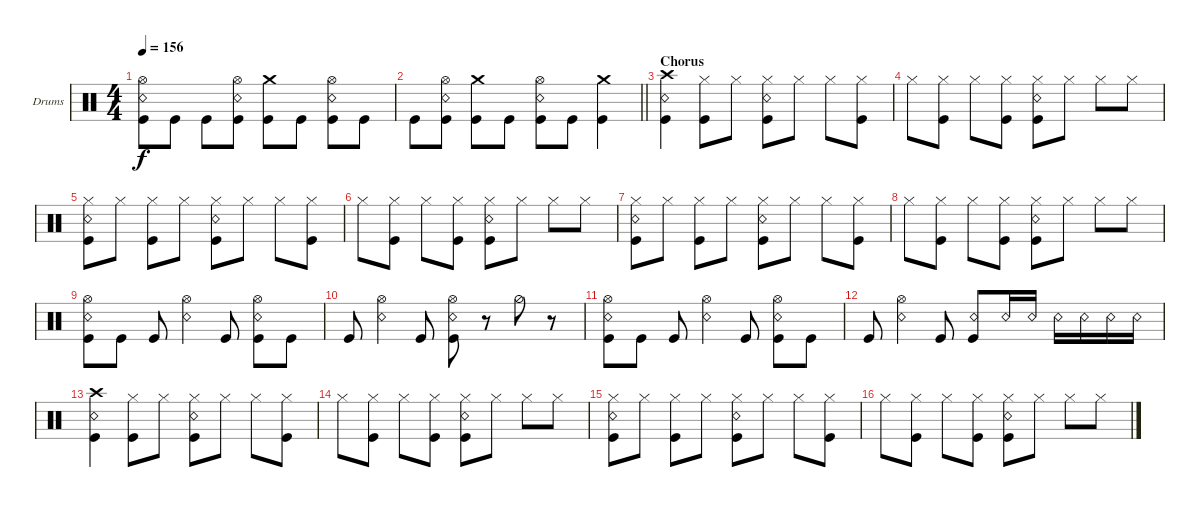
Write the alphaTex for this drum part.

\bracketExtendMode groupsimilarinstruments
\firstSystemTrackNameOrientation horizontal
\otherSystemsTrackNameOrientation horizontal
\track ("Drums" "Drums") {instrument percussion}
\staff {score}
\articulation defaults
\ts (4 4)
\tempo 156
\clef neutral
\ks c
("Kick (hit)" "Snare (rim shot)" "Hi-Hat (open)").8{dy f} "Kick (hit)".8 "Kick (hit)".8 ("Snare (rim shot)" "Kick (hit)" "Hi-Hat (open)").8 ("Crash medium (hit)" "Kick (hit)").8 "Kick (hit)".8 ("Kick (hit)" "Snare (rim shot)" "Hi-Hat (open)").8 "Kick (hit)".8 |
\barLineRight lightlight "Kick (hit)".8
("Snare (rim shot)" "Kick (hit)" "Hi-Hat (open)").8 ("Kick (hit)" "Crash medium (hit)").8 "Kick (hit)".8 ("Kick (hit)" "Snare (rim shot)" "Hi-Hat (open)").8 "Kick (hit)".8 ("Kick (hit)" "Crash medium (hit)").4 |
\section ("" "Chorus")
("Kick (hit)" "Snare (rim shot)" "Crash high (hit)").4 ("Kick (hit)" "Hi-Hat (closed)").8 "Hi-Hat (closed)".8 ("Kick (hit)" "Snare (rim shot)" "Hi-Hat (closed)").8 "Hi-Hat (closed)".8 "Hi-Hat (closed)".8 ("Kick (hit)" "Hi-Hat (closed)").8 |
"Hi-Hat (closed)".8 ("Kick (hit)" "Hi-Hat (closed)").8 "Hi-Hat (closed)".8 ("Kick (hit)" "Hi-Hat (closed)").8 ("Kick (hit)" "Snare (rim shot)" "Hi-Hat (closed)").8 "Hi-Hat (closed)".8 "Hi-Hat (closed)".8 "Hi-Hat (closed)".8 |
("Kick (hit)" "Snare (rim shot)" "Hi-Hat (closed)").8 "Hi-Hat (closed)".8 ("Kick (hit)" "Hi-Hat (closed)").8 "Hi-Hat (closed)".8 ("Kick (hit)" "Snare (rim shot)" "Hi-Hat (closed)").8 "Hi-Hat (closed)".8 "Hi-Hat (closed)".8 ("Kick (hit)" "Hi-Hat (closed)").8 |
"Hi-Hat (closed)".8 ("Kick (hit)" "Hi-Hat (closed)").8 "Hi-Hat (closed)".8 ("Kick (hit)" "Hi-Hat (closed)").8 ("Kick (hit)" "Snare (rim shot)" "Hi-Hat (closed)").8 "Hi-Hat (closed)".8 "Hi-Hat (closed)".8 "Hi-Hat (closed)".8 |
("Kick (hit)" "Snare (rim shot)" "Hi-Hat (closed)").8 "Hi-Hat (closed)".8 ("Kick (hit)" "Hi-Hat (closed)").8 "Hi-Hat (closed)".8 ("Kick (hit)" "Snare (rim shot)" "Hi-Hat (closed)").8 "Hi-Hat (closed)".8 "Hi-Hat (closed)".8 ("Kick (hit)" "Hi-Hat (closed)").8 |
"Hi-Hat (closed)".8 ("Kick (hit)" "Hi-Hat (closed)").8 "Hi-Hat (closed)".8 ("Kick (hit)" "Hi-Hat (closed)").8 ("Kick (hit)" "Snare (rim shot)" "Hi-Hat (closed)").8 "Hi-Hat (closed)".8 "Hi-Hat (closed)".8 "Hi-Hat (closed)".8 |
("Kick (hit)" "Snare (rim shot)" "Hi-Hat (open)").8 "Kick (hit)".8 "Kick (hit)".8 ("Snare (rim shot)" "Hi-Hat (open)").4 "Kick (hit)".8 ("Kick (hit)" "Snare (rim shot)" "Hi-Hat (open)").8 "Kick (hit)".8 |
"Kick (hit)".8 ("Snare (rim shot)" "Hi-Hat (open)").4 "Kick (hit)".8 ("Kick (hit)" "Snare (rim shot)" "Hi-Hat (open)").8 r.8 "Hi-Hat (half)".8 r.8 |
("Kick (hit)" "Snare (rim shot)" "Hi-Hat (open)").8 "Kick (hit)".8 "Kick (hit)".8 ("Snare (rim shot)" "Hi-Hat (open)").4 "Kick (hit)".8 ("Kick (hit)" "Snare (rim shot)" "Hi-Hat (open)").8 "Kick (hit)".8 |
"Kick (hit)".8 ("Snare (rim shot)" "Hi-Hat (open)").4 "Kick (hit)".8 ("Kick (hit)" "Snare (rim shot)").8 "Snare (rim shot)".16 "Snare (rim shot)".16 "Snare (rim shot)".16 "Snare (rim shot)".16 "Snare (rim shot)".16 "Snare (rim shot)".16 |
("Kick (hit)" "Snare (rim shot)" "Crash high (hit)").4 ("Kick (hit)" "Hi-Hat (closed)").8 "Hi-Hat (closed)".8 ("Kick (hit)" "Snare (rim shot)" "Hi-Hat (closed)").8 "Hi-Hat (closed)".8 "Hi-Hat (closed)".8 ("Kick (hit)" "Hi-Hat (closed)").8 |
"Hi-Hat (closed)".8 ("Kick (hit)" "Hi-Hat (closed)").8 "Hi-Hat (closed)".8 ("Kick (hit)" "Hi-Hat (closed)").8 ("Kick (hit)" "Snare (rim shot)" "Hi-Hat (closed)").8 "Hi-Hat (closed)".8 "Hi-Hat (closed)".8 "Hi-Hat (closed)".8 |
("Kick (hit)" "Snare (rim shot)" "Hi-Hat (closed)").8 "Hi-Hat (closed)".8 ("Kick (hit)" "Hi-Hat (closed)").8 "Hi-Hat (closed)".8 ("Kick (hit)" "Snare (rim shot)" "Hi-Hat (closed)").8 "Hi-Hat (closed)".8 "Hi-Hat (closed)".8 ("Kick (hit)" "Hi-Hat (closed)").8 |
"Hi-Hat (closed)".8 ("Kick (hit)" "Hi-Hat (closed)").8 "Hi-Hat (closed)".8 ("Kick (hit)" "Hi-Hat (closed)").8 ("Kick (hit)" "Snare (rim shot)" "Hi-Hat (closed)").8 "Hi-Hat (closed)".8 "Hi-Hat (closed)".8 "Hi-Hat (closed)".8
